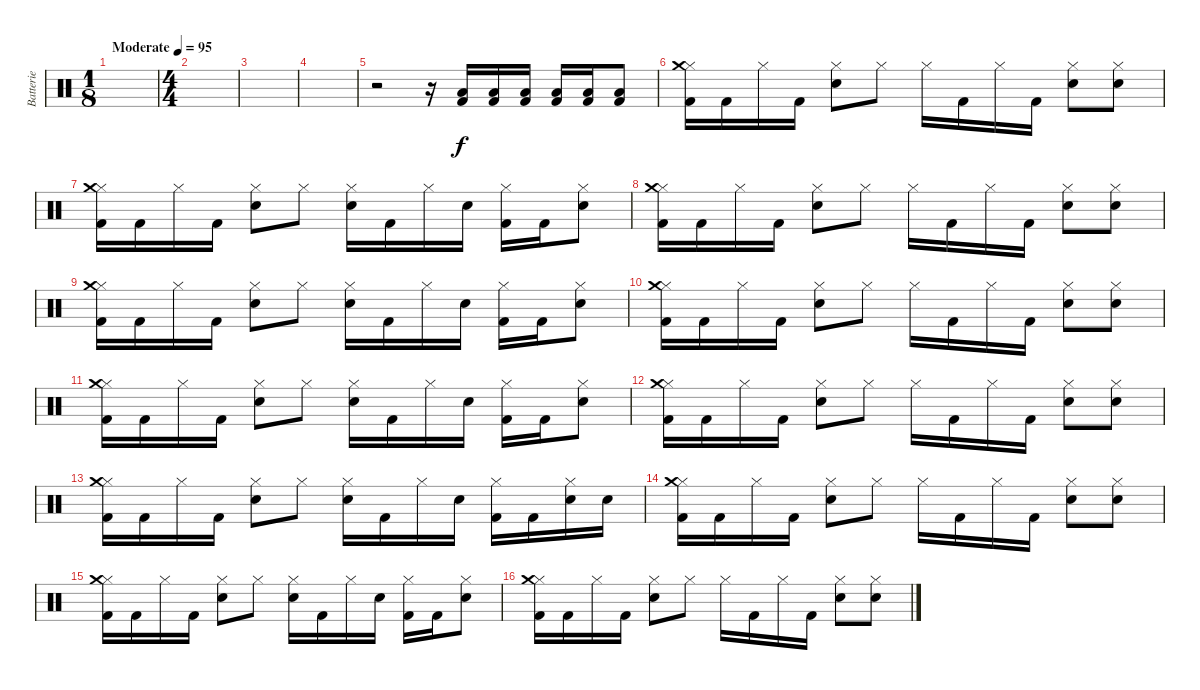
\track ("Batterie" "Batterie") {instrument percussion}
\staff {score}
\articulation defaults
\ts (1 8)
\tempo (95 "Moderate")
\clef neutral
\ks c
|
\ts (4 4)
|
|
|
r.2 r.16 ("Low Tom (hit)" "Kick (hit) 2").16 ("Low Tom (hit)" "Kick (hit) 2").16 ("Low Tom (hit)" "Kick (hit) 2").16 ("Low Tom (hit)" "Kick (hit) 2").16 ("Low Tom (hit)" "Kick (hit) 2").16 ("Low Tom (hit)" "Kick (hit) 2").8 |
("Hi-Hat (closed)" "Crash medium (hit)" "Kick (hit) 2").16 "Kick (hit) 2".16 "Hi-Hat (closed)".16 "Kick (hit) 2".16 ("Hi-Hat (closed)" "Electric Snare (hit)").8 "Hi-Hat (closed)".8 "Hi-Hat (closed)".16 "Kick (hit) 2".16 "Hi-Hat (closed)".16 "Kick (hit) 2".16 ("Hi-Hat (closed)" "Electric Snare (hit)").8 ("Hi-Hat (closed)" "Electric Snare (hit)").8 |
("Hi-Hat (closed)" "Crash medium (hit)" "Kick (hit) 2").16 "Kick (hit) 2".16 "Hi-Hat (closed)".16 "Kick (hit) 2".16 ("Hi-Hat (closed)" "Electric Snare (hit)").8 "Hi-Hat (closed)".8 ("Hi-Hat (closed)" "Electric Snare (hit)").16 "Kick (hit) 2".16 "Hi-Hat (closed)".16 "Electric Snare (hit)".16 ("Hi-Hat (closed)" "Kick (hit) 2").16 "Kick (hit) 2".16 ("Hi-Hat (closed)" "Electric Snare (hit)").8 |
("Hi-Hat (closed)" "Crash medium (hit)" "Kick (hit) 2").16 "Kick (hit) 2".16 "Hi-Hat (closed)".16 "Kick (hit) 2".16 ("Hi-Hat (closed)" "Electric Snare (hit)").8 "Hi-Hat (closed)".8 "Hi-Hat (closed)".16 "Kick (hit) 2".16 "Hi-Hat (closed)".16 "Kick (hit) 2".16 ("Hi-Hat (closed)" "Electric Snare (hit)").8 ("Hi-Hat (closed)" "Electric Snare (hit)").8 |
("Hi-Hat (closed)" "Crash medium (hit)" "Kick (hit) 2").16 "Kick (hit) 2".16 "Hi-Hat (closed)".16 "Kick (hit) 2".16 ("Hi-Hat (closed)" "Electric Snare (hit)").8 "Hi-Hat (closed)".8 ("Hi-Hat (closed)" "Electric Snare (hit)").16 "Kick (hit) 2".16 "Hi-Hat (closed)".16 "Electric Snare (hit)".16 ("Hi-Hat (closed)" "Kick (hit) 2").16 "Kick (hit) 2".16 ("Hi-Hat (closed)" "Electric Snare (hit)").8 |
("Hi-Hat (closed)" "Crash medium (hit)" "Kick (hit) 2").16 "Kick (hit) 2".16 "Hi-Hat (closed)".16 "Kick (hit) 2".16 ("Hi-Hat (closed)" "Electric Snare (hit)").8 "Hi-Hat (closed)".8 "Hi-Hat (closed)".16 "Kick (hit) 2".16 "Hi-Hat (closed)".16 "Kick (hit) 2".16 ("Hi-Hat (closed)" "Electric Snare (hit)").8 ("Hi-Hat (closed)" "Electric Snare (hit)").8 |
("Hi-Hat (closed)" "Crash medium (hit)" "Kick (hit) 2").16 "Kick (hit) 2".16 "Hi-Hat (closed)".16 "Kick (hit) 2".16 ("Hi-Hat (closed)" "Electric Snare (hit)").8 "Hi-Hat (closed)".8 ("Hi-Hat (closed)" "Electric Snare (hit)").16 "Kick (hit) 2".16 "Hi-Hat (closed)".16 "Electric Snare (hit)".16 ("Hi-Hat (closed)" "Kick (hit) 2").16 "Kick (hit) 2".16 ("Hi-Hat (closed)" "Electric Snare (hit)").8 |
("Hi-Hat (closed)" "Crash medium (hit)" "Kick (hit) 2").16 "Kick (hit) 2".16 "Hi-Hat (closed)".16 "Kick (hit) 2".16 ("Hi-Hat (closed)" "Electric Snare (hit)").8 "Hi-Hat (closed)".8 "Hi-Hat (closed)".16 "Kick (hit) 2".16 "Hi-Hat (closed)".16 "Kick (hit) 2".16 ("Hi-Hat (closed)" "Electric Snare (hit)").8 ("Hi-Hat (closed)" "Electric Snare (hit)").8 |
("Hi-Hat (closed)" "Crash medium (hit)" "Kick (hit) 2").16 "Kick (hit) 2".16 "Hi-Hat (closed)".16 "Kick (hit) 2".16 ("Hi-Hat (closed)" "Electric Snare (hit)").8 "Hi-Hat (closed)".8 ("Hi-Hat (closed)" "Electric Snare (hit)").16 "Kick (hit) 2".16 "Hi-Hat (closed)".16 "Electric Snare (hit)".16 ("Hi-Hat (closed)" "Kick (hit) 2").16 "Kick (hit) 2".16 ("Hi-Hat (closed)" "Electric Snare (hit)").16 "Electric Snare (hit)".16 |
("Hi-Hat (closed)" "Crash medium (hit)" "Kick (hit) 2").16 "Kick (hit) 2".16 "Hi-Hat (closed)".16 "Kick (hit) 2".16 ("Hi-Hat (closed)" "Electric Snare (hit)").8 "Hi-Hat (closed)".8 "Hi-Hat (closed)".16 "Kick (hit) 2".16 "Hi-Hat (closed)".16 "Kick (hit) 2".16 ("Hi-Hat (closed)" "Electric Snare (hit)").8 ("Hi-Hat (closed)" "Electric Snare (hit)").8 |
("Hi-Hat (closed)" "Crash medium (hit)" "Kick (hit) 2").16 "Kick (hit) 2".16 "Hi-Hat (closed)".16 "Kick (hit) 2".16 ("Hi-Hat (closed)" "Electric Snare (hit)").8 "Hi-Hat (closed)".8 ("Hi-Hat (closed)" "Electric Snare (hit)").16 "Kick (hit) 2".16 "Hi-Hat (closed)".16 "Electric Snare (hit)".16 ("Hi-Hat (closed)" "Kick (hit) 2").16 "Kick (hit) 2".16 ("Hi-Hat (closed)" "Electric Snare (hit)").8 |
("Hi-Hat (closed)" "Crash medium (hit)" "Kick (hit) 2").16 "Kick (hit) 2".16 "Hi-Hat (closed)".16 "Kick (hit) 2".16 ("Hi-Hat (closed)" "Electric Snare (hit)").8 "Hi-Hat (closed)".8 "Hi-Hat (closed)".16 "Kick (hit) 2".16 "Hi-Hat (closed)".16 "Kick (hit) 2".16 ("Hi-Hat (closed)" "Electric Snare (hit)").8 ("Hi-Hat (closed)" "Electric Snare (hit)").8
